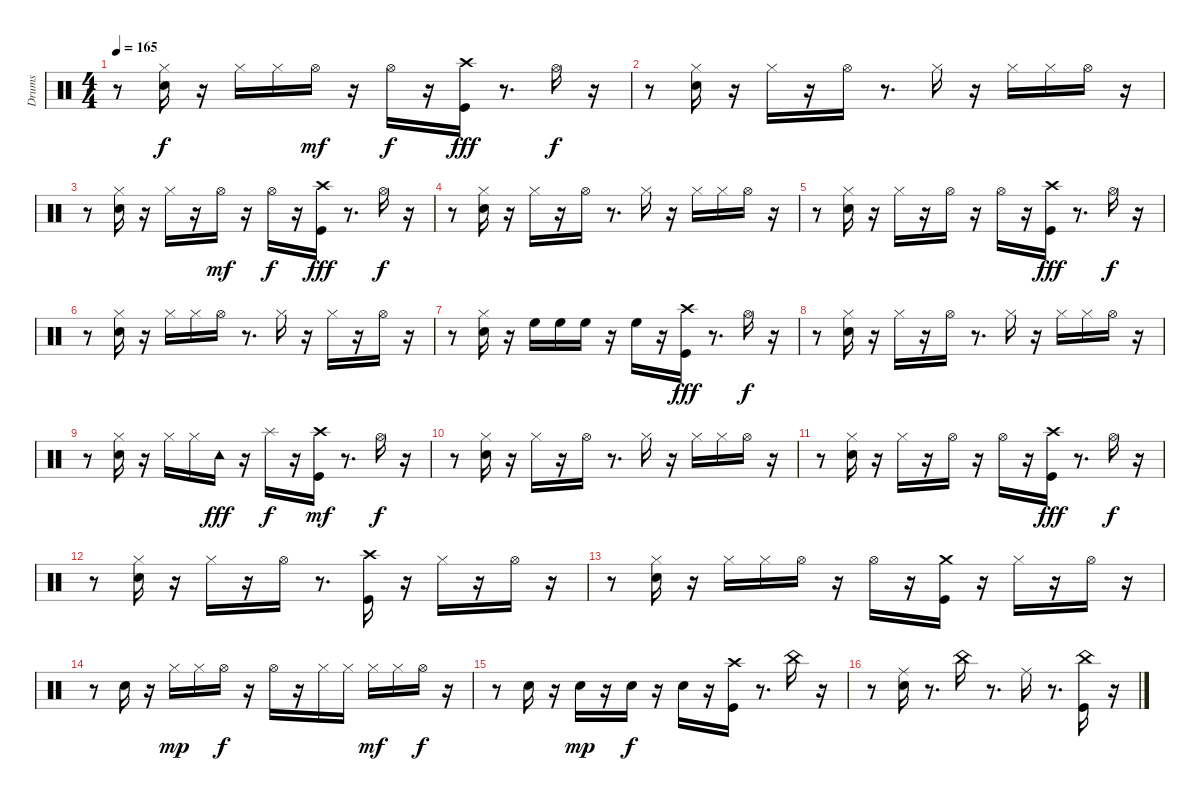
\track ("Drums" "Drums") {instrument percussion}
\staff {score}
\articulation defaults
\ts (4 4)
\tempo 165
\clef neutral
\ks c
r.8{dy f} ("Electric Snare (hit)" "Hi-Hat (closed)").16 r.16 "Hi-Hat (closed)".16 "Hi-Hat (closed)".16 "Hi-Hat (open)".16{dy mf} r.16 "Hi-Hat (open)".16{dy f} r.16 ("Kick (hit)" "Crash high (hit)").16{dy fff} r.8{d} "Hi-Hat (open)".16{dy f} r.16 |
r.8 ("Electric Snare (hit)" "Hi-Hat (closed)").16 r.16 "Hi-Hat (closed)".16 r.16 "Hi-Hat (open)".16 r.8{d} "Hi-Hat (closed)".16 r.16 "Hi-Hat (closed)".16 "Hi-Hat (closed)".16 "Hi-Hat (open)".16 r.16 |
r.8 ("Electric Snare (hit)" "Hi-Hat (closed)").16 r.16 "Hi-Hat (closed)".16 r.16 "Hi-Hat (open)".16{dy mf} r.16 "Hi-Hat (open)".16{dy f} r.16 ("Kick (hit)" "Crash high (hit)").16{dy fff} r.8{d} "Hi-Hat (open)".16{dy f} r.16 |
r.8 ("Electric Snare (hit)" "Hi-Hat (closed)").16 r.16 "Hi-Hat (closed)".16 r.16 "Hi-Hat (open)".16 r.8{d} "Hi-Hat (closed)".16 r.16 "Hi-Hat (closed)".16 "Hi-Hat (closed)".16 "Hi-Hat (open)".16 r.16 |
r.8 ("Electric Snare (hit)" "Hi-Hat (closed)").16 r.16 "Hi-Hat (closed)".16 r.16 "Hi-Hat (open)".16 r.16 "Hi-Hat (open)".16 r.16 ("Kick (hit)" "Crash high (hit)").16{dy fff} r.8{d} "Hi-Hat (open)".16{dy f} r.16 |
r.8 ("Electric Snare (hit)" "Hi-Hat (closed)").16 r.16 "Hi-Hat (closed)".16 "Hi-Hat (closed)".16 "Hi-Hat (open)".16 r.8{d} "Hi-Hat (closed)".16 r.16 "Hi-Hat (closed)".16 r.16 "Hi-Hat (open)".16 r.16 |
r.8 ("Electric Snare (hit)" "Hi-Hat (closed)").16 r.16 "High Floor Tom (hit)".16 "High Floor Tom (hit)".16 "High Floor Tom (hit)".16 r.16 "High Floor Tom (hit)".16 r.16 ("Kick (hit)" "Crash high (hit)").16{dy fff} r.8{d} "Hi-Hat (open)".16{dy f} r.16 |
r.8 ("Electric Snare (hit)" "Hi-Hat (closed)").16 r.16 "Hi-Hat (closed)".16 r.16 "Hi-Hat (open)".16 r.8{d} "Hi-Hat (closed)".16 r.16 "Hi-Hat (closed)".16 "Hi-Hat (closed)".16 "Hi-Hat (open)".16 r.16 |
r.8 ("Electric Snare (hit)" "Hi-Hat (closed)").16 r.16 "Hi-Hat (closed)".16 "Hi-Hat (closed)".16 "Tambourine (hit)".16{dy fff} r.16 "Splash (hit)".16{dy f} r.16 ("Kick (hit)" "Crash high (hit)").16{dy mf} r.8{d} "Hi-Hat (open)".16{dy f} r.16 |
r.8 ("Electric Snare (hit)" "Hi-Hat (closed)").16 r.16 "Hi-Hat (closed)".16 r.16 "Hi-Hat (open)".16 r.8{d} "Hi-Hat (closed)".16 r.16 "Hi-Hat (closed)".16 "Hi-Hat (closed)".16 "Hi-Hat (open)".16 r.16 |
r.8 ("Electric Snare (hit)" "Hi-Hat (closed)").16 r.16 "Hi-Hat (closed)".16 r.16 "Hi-Hat (open)".16 r.16 "Hi-Hat (open)".16 r.16 ("Kick (hit)" "Crash high (hit)").16{dy fff} r.8{d} "Hi-Hat (open)".16{dy f} r.16 |
r.8 ("Electric Snare (hit)" "Hi-Hat (closed)").16 r.16 "Hi-Hat (closed)".16 r.16 "Hi-Hat (open)".16 r.8{d} ("Kick (hit)" "Crash high (hit)").16 r.16 "Hi-Hat (closed)".16 r.16 "Hi-Hat (open)".16 r.16 |
r.8 ("Electric Snare (hit)" "Hi-Hat (closed)").16 r.16 "Hi-Hat (closed)".16 "Hi-Hat (closed)".16 "Hi-Hat (open)".16 r.16 "Hi-Hat (open)".16 r.16 ("Kick (hit)" "Crash medium (hit)").16 r.16 "Hi-Hat (closed)".16 r.16 "Hi-Hat (open)".16 r.16 |
r.8 "Electric Snare (hit)".16 r.16 "Hi-Hat (closed)".16{dy mp} "Hi-Hat (closed)".16 "Hi-Hat (open)".16{dy f} r.16 "Hi-Hat (open)".16 r.16 "Hi-Hat (closed)".16 "Hi-Hat (closed)".16 "Hi-Hat (closed)".16{dy mf} "Hi-Hat (closed)".16 "Hi-Hat (open)".16{dy f} r.16 |
r.8 "Electric Snare (hit)".16 r.16 "Electric Snare (hit)".16{dy mp} r.16 "Electric Snare (hit)".16{dy f} r.16 "Electric Snare (hit)".16 r.16 ("Kick (hit)" "Crash high (hit)").16 r.8{d} "China (hit)".16 r.16 |
r.8 ("Electric Snare (hit)" "Ride (middle)").16 r.8{d} "China (hit)".16 r.8{d} "Ride (middle)".16 r.8{d} ("Kick (hit)" "China (hit)").16 r.16
